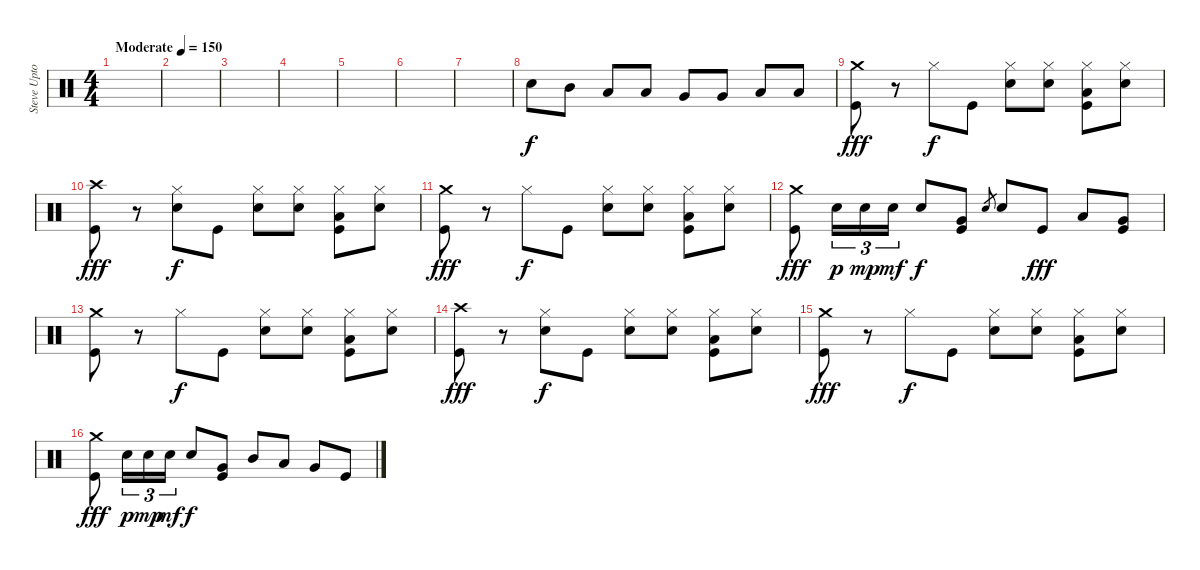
\track ("Steve Upton (drums)" "Steve Upto") {instrument percussion}
\staff {score}
\articulation defaults
\ts (4 4)
\tempo (150 "Moderate")
\clef neutral
\ks c
|
|
|
|
|
|
|
"Electric Snare (hit)".8 "Mid Tom (hit)".8 "Low Tom (hit)".8 "Low Tom (hit)".8 "Very Low Tom (hit)".8 "Very Low Tom (hit)".8 "Low Floor Tom (hit)".8 "Low Floor Tom (hit)".8 |
("Crash medium (hit)" "Kick (hit)").8{dy fff} r.8 "Hi-Hat (closed)".8{dy f} "Kick (hit)".8 ("Hi-Hat (closed)" "Electric Snare (hit)").8 ("Hi-Hat (closed)" "Electric Snare (hit)").8 ("Hi-Hat (closed)" "Low Tom (hit)" "Kick (hit)").8 ("Hi-Hat (closed)" "Electric Snare (hit)").8 |
("Crash high (hit)" "Kick (hit)").8{dy fff} r.8 ("Hi-Hat (closed)" "Electric Snare (hit)").8{dy f} "Kick (hit)".8 ("Hi-Hat (closed)" "Electric Snare (hit)").8 ("Hi-Hat (closed)" "Electric Snare (hit)").8 ("Hi-Hat (closed)" "Low Tom (hit)" "Kick (hit)").8 ("Hi-Hat (closed)" "Electric Snare (hit)").8 |
("Crash medium (hit)" "Kick (hit)").8{dy fff} r.8 "Hi-Hat (closed)".8{dy f} "Kick (hit)".8 ("Hi-Hat (closed)" "Electric Snare (hit)").8 ("Hi-Hat (closed)" "Electric Snare (hit)").8 ("Hi-Hat (closed)" "Low Tom (hit)" "Kick (hit)").8 ("Hi-Hat (closed)" "Electric Snare (hit)").8 |
("Crash medium (hit)" "Kick (hit)").8{dy fff} "Electric Snare (hit)".16{tu (3 2) dy p} "Electric Snare (hit)".16{tu (3 2) dy mp} "Electric Snare (hit)".16{tu (3 2) dy mf} "Electric Snare (hit)".8{dy f} ("Very Low Tom (hit)" "Kick (hit)").8 "Electric Snare (hit)".8{gr} "Electric Snare (hit)".8 "Kick (hit)".8{dy fff} "Low Tom (hit)".8 ("Very Low Tom (hit)" "Kick (hit)").8 |
("Crash medium (hit)" "Kick (hit)").8 r.8 "Hi-Hat (closed)".8{dy f} "Kick (hit)".8 ("Hi-Hat (closed)" "Electric Snare (hit)").8 ("Hi-Hat (closed)" "Electric Snare (hit)").8 ("Hi-Hat (closed)" "Low Tom (hit)" "Kick (hit)").8 ("Hi-Hat (closed)" "Electric Snare (hit)").8 |
("Crash high (hit)" "Kick (hit)").8{dy fff} r.8 ("Hi-Hat (closed)" "Electric Snare (hit)").8{dy f} "Kick (hit)".8 ("Hi-Hat (closed)" "Electric Snare (hit)").8 ("Hi-Hat (closed)" "Electric Snare (hit)").8 ("Hi-Hat (closed)" "Low Tom (hit)" "Kick (hit)").8 ("Hi-Hat (closed)" "Electric Snare (hit)").8 |
("Crash medium (hit)" "Kick (hit)").8{dy fff} r.8 "Hi-Hat (closed)".8{dy f} "Kick (hit)".8 ("Hi-Hat (closed)" "Electric Snare (hit)").8 ("Hi-Hat (closed)" "Electric Snare (hit)").8 ("Hi-Hat (closed)" "Low Tom (hit)" "Kick (hit)").8 ("Hi-Hat (closed)" "Electric Snare (hit)").8 |
("Crash medium (hit)" "Kick (hit)").8{dy fff} "Electric Snare (hit)".16{tu (3 2) dy p} "Electric Snare (hit)".16{tu (3 2) dy mp} "Electric Snare (hit)".16{tu (3 2) dy mf} "Electric Snare (hit)".8{dy f} ("Very Low Tom (hit)" "Kick (hit)").8 "Mid Tom (hit)".8 "Low Tom (hit)".8 "Very Low Tom (hit)".8 "Kick (hit)".8
